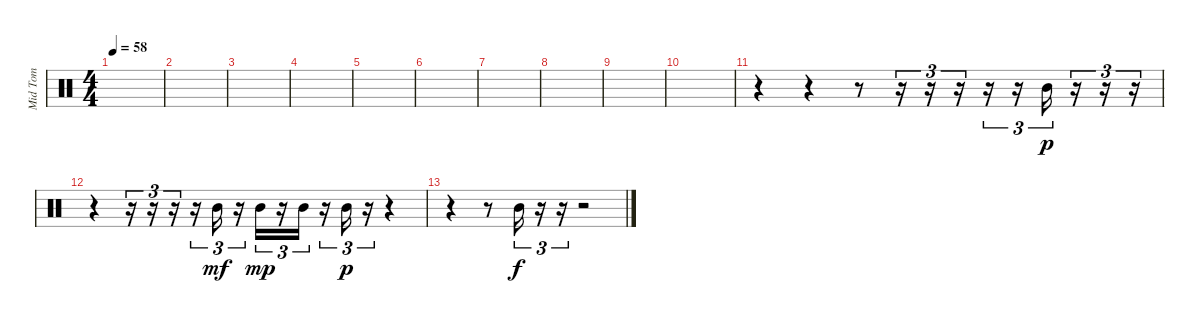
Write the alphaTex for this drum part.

\track ("Mid Tom" "Mid Tom") {instrument percussion}
\staff {score}
\articulation defaults
\ts (4 4)
\tempo 58
\clef neutral
\ks c
|
|
|
|
|
|
|
|
|
|
r.4 r.4 r.8 r.16{tu (3 2)} r.16{tu (3 2)} r.16{tu (3 2)} r.16{tu (3 2)} r.16{tu (3 2)} "Mid Tom (hit)".16{tu (3 2) dy p} r.16{tu (3 2)} r.16{tu (3 2)} r.16{tu (3 2)} |
r.4 r.16{tu (3 2)} r.16{tu (3 2)} r.16{tu (3 2)} r.16{tu (3 2)} "Mid Tom (hit)".16{tu (3 2) dy mf} r.16{tu (3 2)} "Mid Tom (hit)".16{tu (3 2) dy mp} r.16{tu (3 2)} "Mid Tom (hit)".16{tu (3 2)} r.16{tu (3 2)} "Mid Tom (hit)".16{tu (3 2) dy p} r.16{tu (3 2)} r.4 |
r.4 r.8 "Mid Tom (hit)".16{tu (3 2) dy f} r.16{tu (3 2)} r.16{tu (3 2)} r.2
